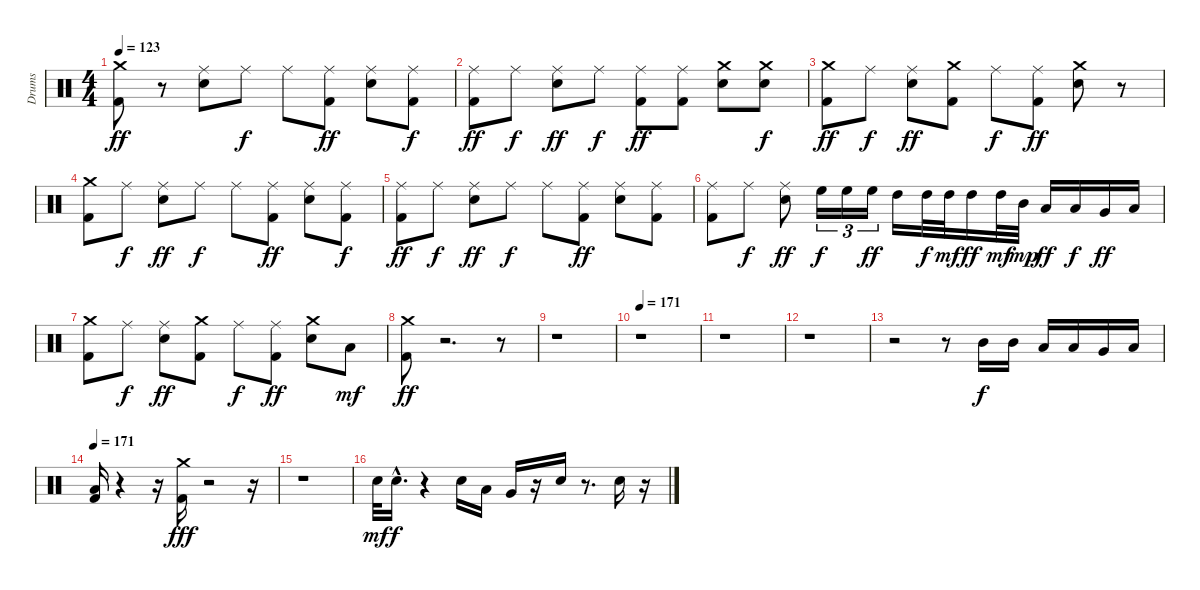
\track ("Drums" "Drums") {instrument percussion}
\staff {score}
\articulation defaults
\ts (4 4)
\tempo 123
\clef neutral
\ks c
("Kick (hit) 2" "Crash medium (hit)").8{dy ff} r.8 ("Electric Snare (hit)" "Ride (middle)").8 "Ride (middle)".8{dy f} "Ride (middle)".8 ("Kick (hit) 2" "Ride (middle)").8{dy ff} ("Electric Snare (hit)" "Ride (middle)").8 ("Ride (middle)" "Kick (hit) 2").8{dy f} |
("Kick (hit) 2" "Ride (middle)").8{dy ff} "Ride (middle)".8{dy f} ("Electric Snare (hit)" "Ride (middle)").8{dy ff} "Ride (middle)".8{dy f} ("Kick (hit) 2" "Ride (middle)").8{dy ff} ("Kick (hit) 2" "Ride (middle)").8 ("Crash medium (hit)" "Electric Snare (hit)").8 ("Crash medium (hit)" "Electric Snare (hit)").8{dy f} |
("Kick (hit) 2" "Crash medium (hit)").8{dy ff} "Ride (middle)".8{dy f} ("Electric Snare (hit)" "Ride (middle)").8{dy ff} ("Crash medium (hit)" "Kick (hit) 2").8 "Ride (middle)".8{dy f} ("Kick (hit) 2" "Ride (middle)").8{dy ff} ("Crash medium (hit)" "Electric Snare (hit)").8 r.8 |
("Kick (hit) 2" "Crash medium (hit)").8 "Ride (middle)".8{dy f} ("Electric Snare (hit)" "Ride (middle)").8{dy ff} "Ride (middle)".8{dy f} "Ride (middle)".8 ("Kick (hit) 2" "Ride (middle)").8{dy ff} ("Electric Snare (hit)" "Ride (middle)").8 ("Kick (hit) 2" "Ride (middle)").8{dy f} |
("Kick (hit) 2" "Ride (middle)").8{dy ff} "Ride (middle)".8{dy f} ("Electric Snare (hit)" "Ride (middle)").8{dy ff} "Ride (middle)".8{dy f} "Ride (middle)".8 ("Kick (hit) 2" "Ride (middle)").8{dy ff} ("Electric Snare (hit)" "Ride (middle)").8 ("Kick (hit) 2" "Ride (middle)").8 |
("Kick (hit) 2" "Ride (middle)").8 "Ride (middle)".8{dy f} ("Electric Snare (hit)" "Ride (middle)").8{dy ff} "High Floor Tom (hit)".16{tu (3 2) dy f} "High Floor Tom (hit)".16{tu (3 2)} "High Floor Tom (hit)".16{tu (3 2) dy ff} "High Tom (hit)".16 "High Tom (hit)".32{dy f} "High Tom (hit)".32{dy mf} "High Tom (hit)".16{dy ff} "High Tom (hit)".32{dy mf} "Mid Tom (hit)".32{dy mp} "Low Tom (hit)".16{dy ff} "Low Tom (hit)".16{dy f} "Very Low Tom (hit)".16{dy ff} "Low Floor Tom (hit)".16 |
("Kick (hit) 2" "Crash medium (hit)").8 "Ride (middle)".8{dy f} ("Electric Snare (hit)" "Ride (middle)").8{dy ff} ("Crash medium (hit)" "Kick (hit) 2").8 "Ride (middle)".8{dy f} ("Kick (hit) 2" "Ride (middle)").8{dy ff} ("Electric Snare (hit)" "Crash medium (hit)").8 "Low Tom (hit)".8{dy mf} |
("Crash medium (hit)" "Kick (hit) 2").8{dy ff} r.2{d} r.8 |
r.1 |
\tempo 171
r.1 |
r.1 |
r.1 |
r.2 r.8 "Mid Tom (hit)".16{dy f} "Mid Tom (hit)".16 "Low Tom (hit)".16 "Low Tom (hit)".16 "Very Low Tom (hit)".16 "Low Floor Tom (hit)".16 |
\tempo 171
("Kick (hit) 2" "Low Floor Tom (hit)").16 r.4 r.16 ("Kick (hit) 2" "Crash medium (hit)").16{dy fff} r.2 r.16 |
r.1 |
"Electric Snare (hit)".32{dy mf} "Electric Snare (hit)"{hac}.16{d dy f} r.4 "Electric Snare (hit)".16 "Low Tom (hit)".16 "Very Low Tom (hit)".16 r.16 "Electric Snare (hit)".16 r.8{d} "Electric Snare (hit)".16 r.16
